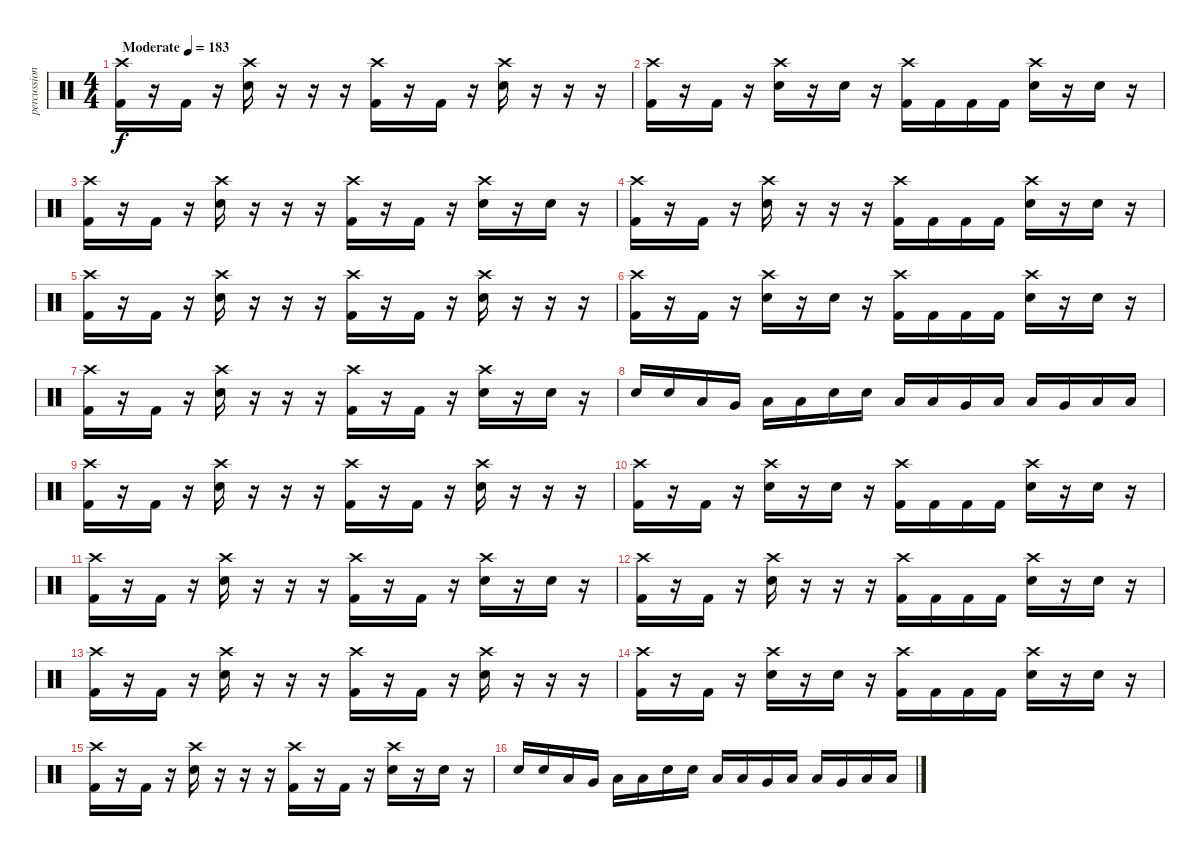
\track ("percussion" "percussion") {instrument percussion}
\staff {score}
\articulation defaults
\ts (4 4)
\tempo (183 "Moderate")
\clef neutral
\ks c
("Crash high (hit)" "Kick (hit) 2").16{dy f} r.16 "Kick (hit) 2".16 r.16 ("Crash high (hit)" "Electric Snare (hit)").16 r.16 r.16 r.16 ("Crash high (hit)" "Kick (hit) 2").16 r.16 "Kick (hit) 2".16 r.16 ("Crash high (hit)" "Electric Snare (hit)").16 r.16 r.16 r.16 |
("Crash high (hit)" "Kick (hit) 2").16 r.16 "Kick (hit) 2".16 r.16 ("Crash high (hit)" "Electric Snare (hit)").16 r.16 "Electric Snare (hit)".16 r.16 ("Crash high (hit)" "Kick (hit) 2").16 "Kick (hit) 2".16 "Kick (hit) 2".16 "Kick (hit) 2".16 ("Crash high (hit)" "Electric Snare (hit)").16 r.16 "Electric Snare (hit)".16 r.16 |
("Crash high (hit)" "Kick (hit) 2").16 r.16 "Kick (hit) 2".16 r.16 ("Crash high (hit)" "Electric Snare (hit)").16 r.16 r.16 r.16 ("Crash high (hit)" "Kick (hit) 2").16 r.16 "Kick (hit) 2".16 r.16 ("Crash high (hit)" "Electric Snare (hit)").16 r.16 "Electric Snare (hit)".16 r.16 |
("Crash high (hit)" "Kick (hit) 2").16 r.16 "Kick (hit) 2".16 r.16 ("Crash high (hit)" "Electric Snare (hit)").16 r.16 r.16 r.16 ("Crash high (hit)" "Kick (hit) 2").16 "Kick (hit) 2".16 "Kick (hit) 2".16 "Kick (hit) 2".16 ("Crash high (hit)" "Electric Snare (hit)").16 r.16 "Electric Snare (hit)".16 r.16 |
("Crash high (hit)" "Kick (hit) 2").16 r.16 "Kick (hit) 2".16 r.16 ("Crash high (hit)" "Electric Snare (hit)").16 r.16 r.16 r.16 ("Crash high (hit)" "Kick (hit) 2").16 r.16 "Kick (hit) 2".16 r.16 ("Crash high (hit)" "Electric Snare (hit)").16 r.16 r.16 r.16 |
("Crash high (hit)" "Kick (hit) 2").16 r.16 "Kick (hit) 2".16 r.16 ("Crash high (hit)" "Electric Snare (hit)").16 r.16 "Electric Snare (hit)".16 r.16 ("Crash high (hit)" "Kick (hit) 2").16 "Kick (hit) 2".16 "Kick (hit) 2".16 "Kick (hit) 2".16 ("Crash high (hit)" "Electric Snare (hit)").16 r.16 "Electric Snare (hit)".16 r.16 |
("Crash high (hit)" "Kick (hit) 2").16 r.16 "Kick (hit) 2".16 r.16 ("Crash high (hit)" "Electric Snare (hit)").16 r.16 r.16 r.16 ("Crash high (hit)" "Kick (hit) 2").16 r.16 "Kick (hit) 2".16 r.16 ("Crash high (hit)" "Electric Snare (hit)").16 r.16 "Electric Snare (hit)".16 r.16 |
"Electric Snare (hit)".16 "Electric Snare (hit)".16 "Low Tom (hit)".16 "Very Low Tom (hit)".16 "Low Floor Tom (hit)".16 "Low Floor Tom (hit)".16 "Electric Snare (hit)".16 "Electric Snare (hit)".16 "Low Tom (hit)".16 "Low Tom (hit)".16 "Very Low Tom (hit)".16 "Low Floor Tom (hit)".16 "Low Tom (hit)".16 "Very Low Tom (hit)".16 "Low Floor Tom (hit)".16 "Low Floor Tom (hit)".16 |
("Crash high (hit)" "Kick (hit) 2").16 r.16 "Kick (hit) 2".16 r.16 ("Crash high (hit)" "Electric Snare (hit)").16 r.16 r.16 r.16 ("Crash high (hit)" "Kick (hit) 2").16 r.16 "Kick (hit) 2".16 r.16 ("Crash high (hit)" "Electric Snare (hit)").16 r.16 r.16 r.16 |
("Crash high (hit)" "Kick (hit) 2").16 r.16 "Kick (hit) 2".16 r.16 ("Crash high (hit)" "Electric Snare (hit)").16 r.16 "Electric Snare (hit)".16 r.16 ("Crash high (hit)" "Kick (hit) 2").16 "Kick (hit) 2".16 "Kick (hit) 2".16 "Kick (hit) 2".16 ("Crash high (hit)" "Electric Snare (hit)").16 r.16 "Electric Snare (hit)".16 r.16 |
("Crash high (hit)" "Kick (hit) 2").16 r.16 "Kick (hit) 2".16 r.16 ("Crash high (hit)" "Electric Snare (hit)").16 r.16 r.16 r.16 ("Crash high (hit)" "Kick (hit) 2").16 r.16 "Kick (hit) 2".16 r.16 ("Crash high (hit)" "Electric Snare (hit)").16 r.16 "Electric Snare (hit)".16 r.16 |
("Crash high (hit)" "Kick (hit) 2").16 r.16 "Kick (hit) 2".16 r.16 ("Crash high (hit)" "Electric Snare (hit)").16 r.16 r.16 r.16 ("Crash high (hit)" "Kick (hit) 2").16 "Kick (hit) 2".16 "Kick (hit) 2".16 "Kick (hit) 2".16 ("Crash high (hit)" "Electric Snare (hit)").16 r.16 "Electric Snare (hit)".16 r.16 |
("Crash high (hit)" "Kick (hit) 2").16 r.16 "Kick (hit) 2".16 r.16 ("Crash high (hit)" "Electric Snare (hit)").16 r.16 r.16 r.16 ("Crash high (hit)" "Kick (hit) 2").16 r.16 "Kick (hit) 2".16 r.16 ("Crash high (hit)" "Electric Snare (hit)").16 r.16 r.16 r.16 |
("Crash high (hit)" "Kick (hit) 2").16 r.16 "Kick (hit) 2".16 r.16 ("Crash high (hit)" "Electric Snare (hit)").16 r.16 "Electric Snare (hit)".16 r.16 ("Crash high (hit)" "Kick (hit) 2").16 "Kick (hit) 2".16 "Kick (hit) 2".16 "Kick (hit) 2".16 ("Crash high (hit)" "Electric Snare (hit)").16 r.16 "Electric Snare (hit)".16 r.16 |
("Crash high (hit)" "Kick (hit) 2").16 r.16 "Kick (hit) 2".16 r.16 ("Crash high (hit)" "Electric Snare (hit)").16 r.16 r.16 r.16 ("Crash high (hit)" "Kick (hit) 2").16 r.16 "Kick (hit) 2".16 r.16 ("Crash high (hit)" "Electric Snare (hit)").16 r.16 "Electric Snare (hit)".16 r.16 |
"Electric Snare (hit)".16 "Electric Snare (hit)".16 "Low Tom (hit)".16 "Very Low Tom (hit)".16 "Low Floor Tom (hit)".16 "Low Floor Tom (hit)".16 "Electric Snare (hit)".16 "Electric Snare (hit)".16 "Low Tom (hit)".16 "Low Tom (hit)".16 "Very Low Tom (hit)".16 "Low Floor Tom (hit)".16 "Low Tom (hit)".16 "Very Low Tom (hit)".16 "Low Floor Tom (hit)".16 "Low Floor Tom (hit)".16
